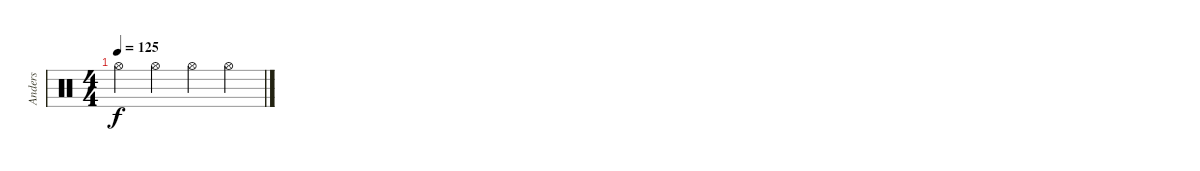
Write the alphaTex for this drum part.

\track ("Anders" "Anders") {instrument percussion}
\staff {score}
\articulation defaults
\ts (4 4)
\tempo 125
\clef neutral
\ks c "Hi-Hat (open)".4{dy f} "Hi-Hat (open)".4 "Hi-Hat (open)".4 "Hi-Hat (open)".4
